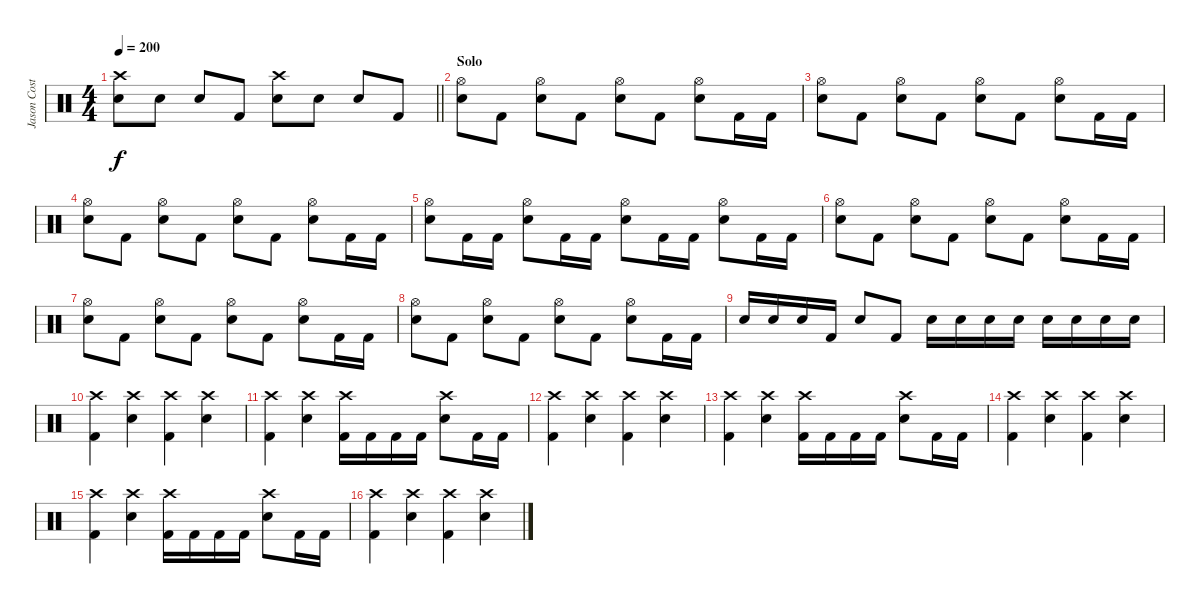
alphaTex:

\track ("Jason Costa" "Jason Cost") {instrument percussion}
\staff {score}
\articulation defaults
\ts (4 4)
\tempo 200
\clef neutral
\barLineRight lightlight
\ks c
("Crash high (hit)" "Electric Snare (hit)").8{dy f} "Electric Snare (hit)".8 "Electric Snare (hit)".8 "Kick (hit) 2".8 ("Crash high (hit)" "Electric Snare (hit)").8 "Electric Snare (hit)".8 "Electric Snare (hit)".8 "Kick (hit) 2".8 |
\section ("" "Solo")
("Hi-Hat (open)" "Electric Snare (hit)").8 "Kick (hit) 2".8 ("Hi-Hat (open)" "Electric Snare (hit)").8 "Kick (hit) 2".8 ("Hi-Hat (open)" "Electric Snare (hit)").8 "Kick (hit) 2".8 ("Hi-Hat (open)" "Electric Snare (hit)").8 "Kick (hit) 2".16 "Kick (hit) 2".16 |
("Hi-Hat (open)" "Electric Snare (hit)").8 "Kick (hit) 2".8 ("Hi-Hat (open)" "Electric Snare (hit)").8 "Kick (hit) 2".8 ("Hi-Hat (open)" "Electric Snare (hit)").8 "Kick (hit) 2".8 ("Hi-Hat (open)" "Electric Snare (hit)").8 "Kick (hit) 2".16 "Kick (hit) 2".16 |
("Hi-Hat (open)" "Electric Snare (hit)").8 "Kick (hit) 2".8 ("Hi-Hat (open)" "Electric Snare (hit)").8 "Kick (hit) 2".8 ("Hi-Hat (open)" "Electric Snare (hit)").8 "Kick (hit) 2".8 ("Hi-Hat (open)" "Electric Snare (hit)").8 "Kick (hit) 2".16 "Kick (hit) 2".16 |
("Hi-Hat (open)" "Electric Snare (hit)").8 "Kick (hit) 2".16 "Kick (hit) 2".16 ("Hi-Hat (open)" "Electric Snare (hit)").8 "Kick (hit) 2".16 "Kick (hit) 2".16 ("Hi-Hat (open)" "Electric Snare (hit)").8 "Kick (hit) 2".16 "Kick (hit) 2".16 ("Hi-Hat (open)" "Electric Snare (hit)").8 "Kick (hit) 2".16 "Kick (hit) 2".16 |
("Hi-Hat (open)" "Electric Snare (hit)").8 "Kick (hit) 2".8 ("Hi-Hat (open)" "Electric Snare (hit)").8 "Kick (hit) 2".8 ("Hi-Hat (open)" "Electric Snare (hit)").8 "Kick (hit) 2".8 ("Hi-Hat (open)" "Electric Snare (hit)").8 "Kick (hit) 2".16 "Kick (hit) 2".16 |
("Hi-Hat (open)" "Electric Snare (hit)").8 "Kick (hit) 2".8 ("Hi-Hat (open)" "Electric Snare (hit)").8 "Kick (hit) 2".8 ("Hi-Hat (open)" "Electric Snare (hit)").8 "Kick (hit) 2".8 ("Hi-Hat (open)" "Electric Snare (hit)").8 "Kick (hit) 2".16 "Kick (hit) 2".16 |
("Hi-Hat (open)" "Electric Snare (hit)").8 "Kick (hit) 2".8 ("Hi-Hat (open)" "Electric Snare (hit)").8 "Kick (hit) 2".8 ("Hi-Hat (open)" "Electric Snare (hit)").8 "Kick (hit) 2".8 ("Hi-Hat (open)" "Electric Snare (hit)").8 "Kick (hit) 2".16 "Kick (hit) 2".16 |
"Electric Snare (hit)".16 "Electric Snare (hit)".16 "Electric Snare (hit)".16 "Kick (hit) 2".16 "Electric Snare (hit)".8 "Kick (hit) 2".8 "Electric Snare (hit)".16 "Electric Snare (hit)".16 "Electric Snare (hit)".16 "Electric Snare (hit)".16 "Electric Snare (hit)".16 "Electric Snare (hit)".16 "Electric Snare (hit)".16 "Electric Snare (hit)".16 |
("Crash high (hit)" "Kick (hit) 2").4 ("Crash high (hit)" "Electric Snare (hit)").4 ("Crash high (hit)" "Kick (hit) 2").4 ("Crash high (hit)" "Electric Snare (hit)").4 |
("Crash high (hit)" "Kick (hit) 2").4 ("Crash high (hit)" "Electric Snare (hit)").4 ("Crash high (hit)" "Kick (hit) 2").16 "Kick (hit) 2".16 "Kick (hit) 2".16 "Kick (hit) 2".16 ("Crash high (hit)" "Electric Snare (hit)").8 "Kick (hit) 2".16 "Kick (hit) 2".16 |
("Crash high (hit)" "Kick (hit) 2").4 ("Crash high (hit)" "Electric Snare (hit)").4 ("Crash high (hit)" "Kick (hit) 2").4 ("Crash high (hit)" "Electric Snare (hit)").4 |
("Crash high (hit)" "Kick (hit) 2").4 ("Crash high (hit)" "Electric Snare (hit)").4 ("Crash high (hit)" "Kick (hit) 2").16 "Kick (hit) 2".16 "Kick (hit) 2".16 "Kick (hit) 2".16 ("Crash high (hit)" "Electric Snare (hit)").8 "Kick (hit) 2".16 "Kick (hit) 2".16 |
("Crash high (hit)" "Kick (hit) 2").4 ("Crash high (hit)" "Electric Snare (hit)").4 ("Crash high (hit)" "Kick (hit) 2").4 ("Crash high (hit)" "Electric Snare (hit)").4 |
("Crash high (hit)" "Kick (hit) 2").4 ("Crash high (hit)" "Electric Snare (hit)").4 ("Crash high (hit)" "Kick (hit) 2").16 "Kick (hit) 2".16 "Kick (hit) 2".16 "Kick (hit) 2".16 ("Crash high (hit)" "Electric Snare (hit)").8 "Kick (hit) 2".16 "Kick (hit) 2".16 |
("Crash high (hit)" "Kick (hit) 2").4 ("Crash high (hit)" "Electric Snare (hit)").4 ("Crash high (hit)" "Kick (hit) 2").4 ("Crash high (hit)" "Electric Snare (hit)").4
